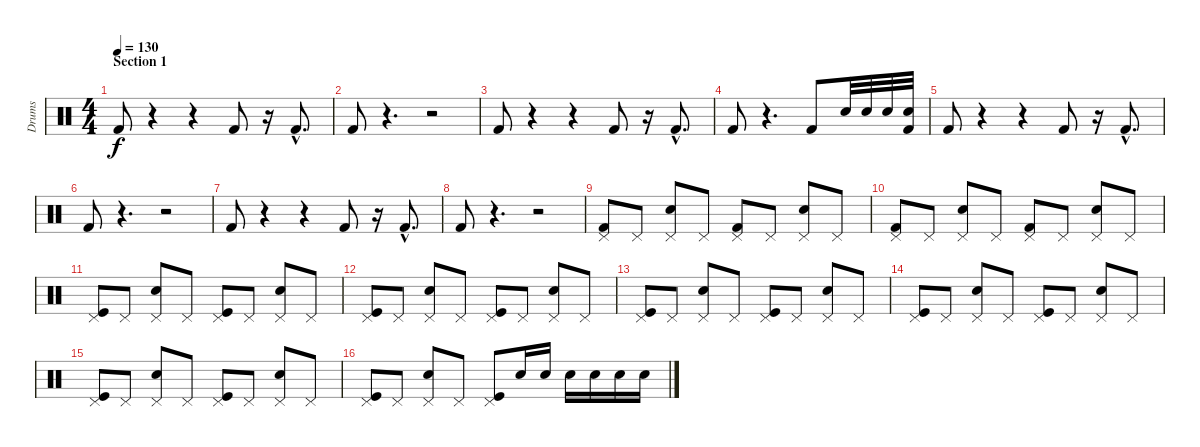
\track ("Drums" "Drums") {instrument percussion}
\staff {score}
\articulation defaults
\ts (4 4)
\section ("" "Section 1")
\tempo 130
\clef neutral
\ks c "Kick (hit) 2".8{dy f}
r.4 r.4 "Kick (hit) 2".8 r.16 "Kick (hit) 2"{hac}.8{d} |
"Kick (hit) 2".8 r.4{d} r.2 |
"Kick (hit) 2".8 r.4 r.4 "Kick (hit) 2".8 r.16 "Kick (hit) 2"{hac}.8{d} |
"Kick (hit) 2".8 r.4{d} "Kick (hit) 2".8 "Snare (hit) 2".32 "Snare (hit) 2".32 "Snare (hit) 2".32 ("Electric Snare (hit)" "Kick (hit) 2").32 |
"Kick (hit) 2".8 r.4 r.4 "Kick (hit) 2".8 r.16 "Kick (hit) 2"{hac}.8{d} |
"Kick (hit) 2".8 r.4{d} r.2 |
"Kick (hit) 2".8 r.4 r.4 "Kick (hit) 2".8 r.16 "Kick (hit) 2"{hac}.8{d} |
"Kick (hit) 2".8 r.4{d} r.2 |
("Pedal Hi-Hat (hit)" "Kick (hit) 2").8 "Pedal Hi-Hat (hit)".8 ("Pedal Hi-Hat (hit)" "Electric Snare (hit)").8 "Pedal Hi-Hat (hit)".8 ("Pedal Hi-Hat (hit)" "Kick (hit) 2").8 "Pedal Hi-Hat (hit)".8 ("Pedal Hi-Hat (hit)" "Electric Snare (hit)").8 "Pedal Hi-Hat (hit)".8 |
("Pedal Hi-Hat (hit)" "Kick (hit) 2").8 "Pedal Hi-Hat (hit)".8 ("Pedal Hi-Hat (hit)" "Electric Snare (hit)").8 "Pedal Hi-Hat (hit)".8 ("Pedal Hi-Hat (hit)" "Kick (hit) 2").8 "Pedal Hi-Hat (hit)".8 ("Pedal Hi-Hat (hit)" "Electric Snare (hit)").8 "Pedal Hi-Hat (hit)".8 |
("Pedal Hi-Hat (hit)" "Kick (hit)").8 "Pedal Hi-Hat (hit)".8 ("Pedal Hi-Hat (hit)" "Electric Snare (hit)").8 "Pedal Hi-Hat (hit)".8 ("Pedal Hi-Hat (hit)" "Kick (hit)").8 "Pedal Hi-Hat (hit)".8 ("Pedal Hi-Hat (hit)" "Electric Snare (hit)").8 "Pedal Hi-Hat (hit)".8 |
("Pedal Hi-Hat (hit)" "Kick (hit)").8 "Pedal Hi-Hat (hit)".8 ("Pedal Hi-Hat (hit)" "Electric Snare (hit)").8 "Pedal Hi-Hat (hit)".8 ("Pedal Hi-Hat (hit)" "Kick (hit)").8 "Pedal Hi-Hat (hit)".8 ("Pedal Hi-Hat (hit)" "Electric Snare (hit)").8 "Pedal Hi-Hat (hit)".8 |
("Pedal Hi-Hat (hit)" "Kick (hit)").8 "Pedal Hi-Hat (hit)".8 ("Pedal Hi-Hat (hit)" "Electric Snare (hit)").8 "Pedal Hi-Hat (hit)".8 ("Pedal Hi-Hat (hit)" "Kick (hit)").8 "Pedal Hi-Hat (hit)".8 ("Pedal Hi-Hat (hit)" "Electric Snare (hit)").8 "Pedal Hi-Hat (hit)".8 |
("Pedal Hi-Hat (hit)" "Kick (hit)").8 "Pedal Hi-Hat (hit)".8 ("Pedal Hi-Hat (hit)" "Electric Snare (hit)").8 "Pedal Hi-Hat (hit)".8 ("Pedal Hi-Hat (hit)" "Kick (hit)").8 "Pedal Hi-Hat (hit)".8 ("Pedal Hi-Hat (hit)" "Electric Snare (hit)").8 "Pedal Hi-Hat (hit)".8 |
("Pedal Hi-Hat (hit)" "Kick (hit)").8 "Pedal Hi-Hat (hit)".8 ("Pedal Hi-Hat (hit)" "Electric Snare (hit)").8 "Pedal Hi-Hat (hit)".8 ("Pedal Hi-Hat (hit)" "Kick (hit)").8 "Pedal Hi-Hat (hit)".8 ("Pedal Hi-Hat (hit)" "Electric Snare (hit)").8 "Pedal Hi-Hat (hit)".8 |
("Pedal Hi-Hat (hit)" "Kick (hit)").8 "Pedal Hi-Hat (hit)".8 ("Pedal Hi-Hat (hit)" "Electric Snare (hit)").8 "Pedal Hi-Hat (hit)".8 ("Pedal Hi-Hat (hit)" "Kick (hit)").8 "Electric Snare (hit)".16 "Electric Snare (hit)".16 "Electric Snare (hit)".16 "Electric Snare (hit)".16 "Electric Snare (hit)".16 "Electric Snare (hit)".16
